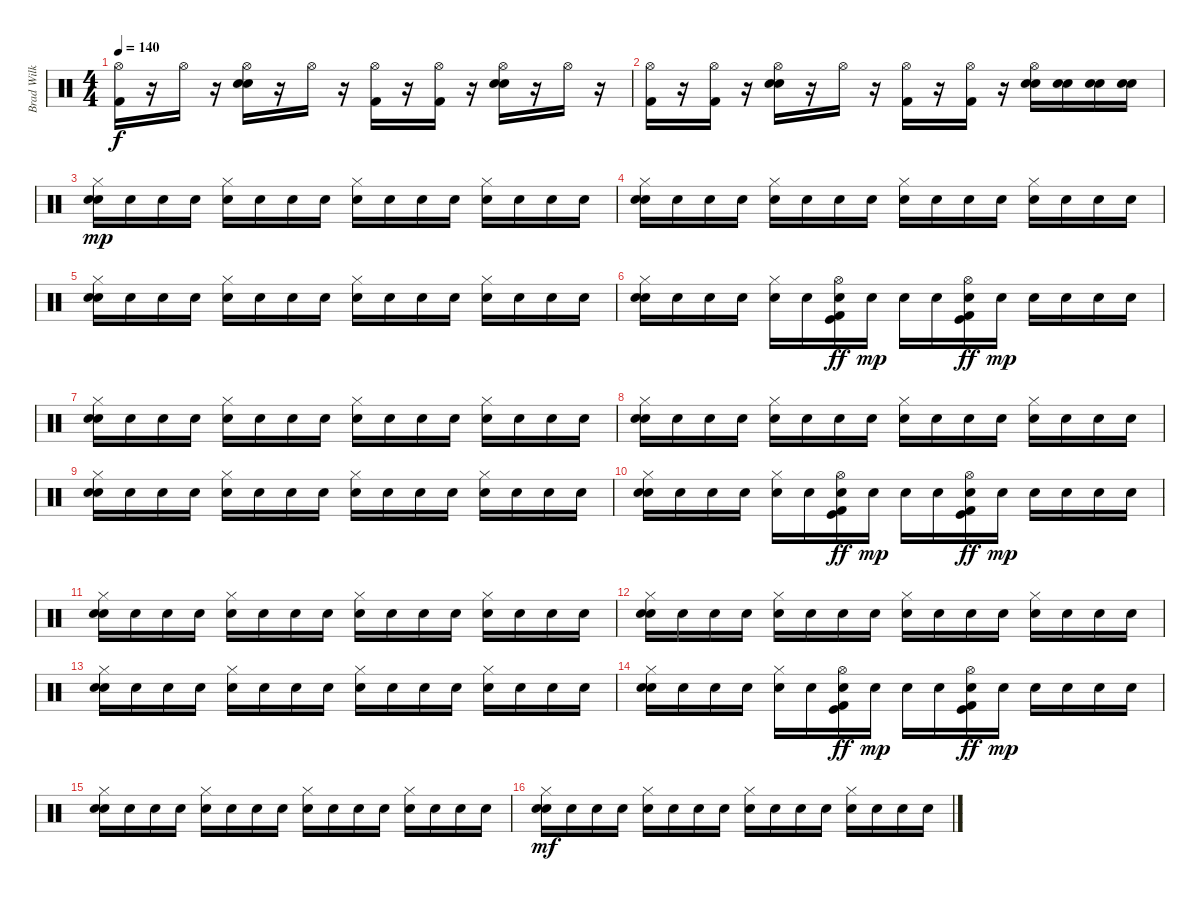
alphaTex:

\track ("Brad Wilk" "Brad Wilk") {instrument percussion}
\staff {score}
\articulation defaults
\ts (4 4)
\tempo 140
\clef neutral
\ks c
("Hi-Hat (open)" "Kick (hit) 2").16{dy f} r.16 "Hi-Hat (open)".16 r.16 ("Hi-Hat (open)" "Electric Snare (hit)" "Snare (hit) 2").16 r.16 "Hi-Hat (open)".16 r.16 ("Hi-Hat (open)" "Kick (hit) 2").16 r.16 ("Hi-Hat (open)" "Kick (hit) 2").16 r.16 ("Hi-Hat (open)" "Electric Snare (hit)" "Snare (hit) 2").16 r.16 "Hi-Hat (open)".16 r.16 |
("Hi-Hat (open)" "Kick (hit) 2").16 r.16 ("Hi-Hat (open)" "Kick (hit) 2").16 r.16 ("Hi-Hat (open)" "Electric Snare (hit)" "Snare (hit) 2").16 r.16 "Hi-Hat (open)".16 r.16 ("Hi-Hat (open)" "Kick (hit) 2").16 r.16 ("Hi-Hat (open)" "Kick (hit) 2").16 r.16 ("Hi-Hat (open)" "Electric Snare (hit)" "Snare (hit) 2").16 ("Electric Snare (hit)" "Snare (hit) 2").16 ("Electric Snare (hit)" "Snare (hit) 2").16 ("Electric Snare (hit)" "Snare (hit) 2").16 |
("Hi-Hat (closed)" "Snare (hit) 2" "Electric Snare (hit)").16{dy mp} "Snare (hit) 2".16 "Snare (hit) 2".16 "Snare (hit) 2".16 ("Hi-Hat (closed)" "Snare (hit) 2").16 "Snare (hit) 2".16 "Snare (hit) 2".16 "Snare (hit) 2".16 ("Hi-Hat (closed)" "Snare (hit) 2").16 "Snare (hit) 2".16 "Snare (hit) 2".16 "Snare (hit) 2".16 ("Hi-Hat (closed)" "Snare (hit) 2").16 "Snare (hit) 2".16 "Snare (hit) 2".16 "Snare (hit) 2".16 |
("Hi-Hat (closed)" "Snare (hit) 2" "Electric Snare (hit)").16 "Snare (hit) 2".16 "Snare (hit) 2".16 "Snare (hit) 2".16 ("Hi-Hat (closed)" "Snare (hit) 2").16 "Snare (hit) 2".16 "Snare (hit) 2".16 "Snare (hit) 2".16 ("Hi-Hat (closed)" "Snare (hit) 2").16 "Snare (hit) 2".16 "Snare (hit) 2".16 "Snare (hit) 2".16 ("Hi-Hat (closed)" "Snare (hit) 2").16 "Snare (hit) 2".16 "Snare (hit) 2".16 "Snare (hit) 2".16 |
("Hi-Hat (closed)" "Snare (hit) 2" "Electric Snare (hit)").16 "Snare (hit) 2".16 "Snare (hit) 2".16 "Snare (hit) 2".16 ("Hi-Hat (closed)" "Snare (hit) 2").16 "Snare (hit) 2".16 "Snare (hit) 2".16 "Snare (hit) 2".16 ("Hi-Hat (closed)" "Snare (hit) 2").16 "Snare (hit) 2".16 "Snare (hit) 2".16 "Snare (hit) 2".16 ("Hi-Hat (closed)" "Snare (hit) 2").16 "Snare (hit) 2".16 "Snare (hit) 2".16 "Snare (hit) 2".16 |
("Hi-Hat (closed)" "Snare (hit) 2" "Electric Snare (hit)").16 "Snare (hit) 2".16 "Snare (hit) 2".16 "Snare (hit) 2".16 ("Hi-Hat (closed)" "Snare (hit) 2").16 "Snare (hit) 2".16 ("Hi-Hat (open)" "Snare (hit) 2" "Kick (hit) 2" "Kick (hit)").16{dy ff} "Snare (hit) 2".16{dy mp} "Snare (hit) 2".16 "Snare (hit) 2".16 ("Hi-Hat (open)" "Snare (hit) 2" "Kick (hit)" "Kick (hit) 2").16{dy ff} "Snare (hit) 2".16{dy mp} "Snare (hit) 2".16 "Snare (hit) 2".16 "Snare (hit) 2".16 "Snare (hit) 2".16 |
("Hi-Hat (closed)" "Snare (hit) 2" "Electric Snare (hit)").16 "Snare (hit) 2".16 "Snare (hit) 2".16 "Snare (hit) 2".16 ("Hi-Hat (closed)" "Snare (hit) 2").16 "Snare (hit) 2".16 "Snare (hit) 2".16 "Snare (hit) 2".16 ("Hi-Hat (closed)" "Snare (hit) 2").16 "Snare (hit) 2".16 "Snare (hit) 2".16 "Snare (hit) 2".16 ("Hi-Hat (closed)" "Snare (hit) 2").16 "Snare (hit) 2".16 "Snare (hit) 2".16 "Snare (hit) 2".16 |
("Hi-Hat (closed)" "Snare (hit) 2" "Electric Snare (hit)").16 "Snare (hit) 2".16 "Snare (hit) 2".16 "Snare (hit) 2".16 ("Hi-Hat (closed)" "Snare (hit) 2").16 "Snare (hit) 2".16 "Snare (hit) 2".16 "Snare (hit) 2".16 ("Hi-Hat (closed)" "Snare (hit) 2").16 "Snare (hit) 2".16 "Snare (hit) 2".16 "Snare (hit) 2".16 ("Hi-Hat (closed)" "Snare (hit) 2").16 "Snare (hit) 2".16 "Snare (hit) 2".16 "Snare (hit) 2".16 |
("Hi-Hat (closed)" "Snare (hit) 2" "Electric Snare (hit)").16 "Snare (hit) 2".16 "Snare (hit) 2".16 "Snare (hit) 2".16 ("Hi-Hat (closed)" "Snare (hit) 2").16 "Snare (hit) 2".16 "Snare (hit) 2".16 "Snare (hit) 2".16 ("Hi-Hat (closed)" "Snare (hit) 2").16 "Snare (hit) 2".16 "Snare (hit) 2".16 "Snare (hit) 2".16 ("Hi-Hat (closed)" "Snare (hit) 2").16 "Snare (hit) 2".16 "Snare (hit) 2".16 "Snare (hit) 2".16 |
("Hi-Hat (closed)" "Snare (hit) 2" "Electric Snare (hit)").16 "Snare (hit) 2".16 "Snare (hit) 2".16 "Snare (hit) 2".16 ("Hi-Hat (closed)" "Snare (hit) 2").16 "Snare (hit) 2".16 ("Hi-Hat (open)" "Snare (hit) 2" "Kick (hit) 2" "Kick (hit)").16{dy ff} "Snare (hit) 2".16{dy mp} "Snare (hit) 2".16 "Snare (hit) 2".16 ("Hi-Hat (open)" "Snare (hit) 2" "Kick (hit)" "Kick (hit) 2").16{dy ff} "Snare (hit) 2".16{dy mp} "Snare (hit) 2".16 "Snare (hit) 2".16 "Snare (hit) 2".16 "Snare (hit) 2".16 |
("Hi-Hat (closed)" "Snare (hit) 2" "Electric Snare (hit)").16 "Snare (hit) 2".16 "Snare (hit) 2".16 "Snare (hit) 2".16 ("Hi-Hat (closed)" "Snare (hit) 2").16 "Snare (hit) 2".16 "Snare (hit) 2".16 "Snare (hit) 2".16 ("Hi-Hat (closed)" "Snare (hit) 2").16 "Snare (hit) 2".16 "Snare (hit) 2".16 "Snare (hit) 2".16 ("Hi-Hat (closed)" "Snare (hit) 2").16 "Snare (hit) 2".16 "Snare (hit) 2".16 "Snare (hit) 2".16 |
("Hi-Hat (closed)" "Snare (hit) 2" "Electric Snare (hit)").16 "Snare (hit) 2".16 "Snare (hit) 2".16 "Snare (hit) 2".16 ("Hi-Hat (closed)" "Snare (hit) 2").16 "Snare (hit) 2".16 "Snare (hit) 2".16 "Snare (hit) 2".16 ("Hi-Hat (closed)" "Snare (hit) 2").16 "Snare (hit) 2".16 "Snare (hit) 2".16 "Snare (hit) 2".16 ("Hi-Hat (closed)" "Snare (hit) 2").16 "Snare (hit) 2".16 "Snare (hit) 2".16 "Snare (hit) 2".16 |
("Hi-Hat (closed)" "Snare (hit) 2" "Electric Snare (hit)").16 "Snare (hit) 2".16 "Snare (hit) 2".16 "Snare (hit) 2".16 ("Hi-Hat (closed)" "Snare (hit) 2").16 "Snare (hit) 2".16 "Snare (hit) 2".16 "Snare (hit) 2".16 ("Hi-Hat (closed)" "Snare (hit) 2").16 "Snare (hit) 2".16 "Snare (hit) 2".16 "Snare (hit) 2".16 ("Hi-Hat (closed)" "Snare (hit) 2").16 "Snare (hit) 2".16 "Snare (hit) 2".16 "Snare (hit) 2".16 |
("Hi-Hat (closed)" "Snare (hit) 2" "Electric Snare (hit)").16 "Snare (hit) 2".16 "Snare (hit) 2".16 "Snare (hit) 2".16 ("Hi-Hat (closed)" "Snare (hit) 2").16 "Snare (hit) 2".16 ("Hi-Hat (open)" "Snare (hit) 2" "Kick (hit) 2" "Kick (hit)").16{dy ff} "Snare (hit) 2".16{dy mp} "Snare (hit) 2".16 "Snare (hit) 2".16 ("Hi-Hat (open)" "Snare (hit) 2" "Kick (hit)" "Kick (hit) 2").16{dy ff} "Snare (hit) 2".16{dy mp} "Snare (hit) 2".16 "Snare (hit) 2".16 "Snare (hit) 2".16 "Snare (hit) 2".16 |
("Hi-Hat (closed)" "Snare (hit) 2" "Electric Snare (hit)").16 "Snare (hit) 2".16 "Snare (hit) 2".16 "Snare (hit) 2".16 ("Hi-Hat (closed)" "Snare (hit) 2").16 "Snare (hit) 2".16 "Snare (hit) 2".16 "Snare (hit) 2".16 ("Hi-Hat (closed)" "Snare (hit) 2").16 "Snare (hit) 2".16 "Snare (hit) 2".16 "Snare (hit) 2".16 ("Hi-Hat (closed)" "Snare (hit) 2").16 "Snare (hit) 2".16 "Snare (hit) 2".16 "Snare (hit) 2".16 |
("Hi-Hat (closed)" "Snare (hit) 2" "Electric Snare (hit)").16{dy mf} "Snare (hit) 2".16 "Snare (hit) 2".16 "Snare (hit) 2".16 ("Hi-Hat (closed)" "Snare (hit) 2").16 "Snare (hit) 2".16 "Snare (hit) 2".16 "Snare (hit) 2".16 ("Hi-Hat (closed)" "Snare (hit) 2").16 "Snare (hit) 2".16 "Snare (hit) 2".16 "Snare (hit) 2".16 ("Hi-Hat (closed)" "Snare (hit) 2").16 "Snare (hit) 2".16 "Snare (hit) 2".16 "Snare (hit) 2".16
